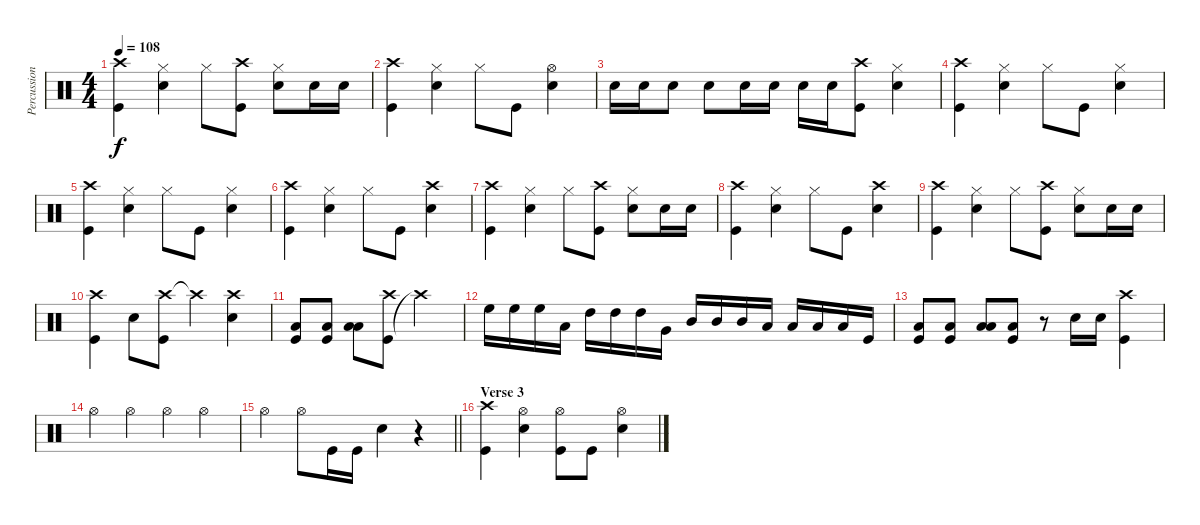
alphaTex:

\track ("Percussion" "Percussion") {instrument percussion}
\staff {score}
\articulation defaults
\ts (4 4)
\tempo 108
\clef neutral
\ks c
("Crash high (hit)" "Kick (hit)").4{dy f} ("Hi-Hat (closed)" "Snare (hit) 2").4 "Hi-Hat (closed)".8 ("Crash high (hit)" "Kick (hit)").8 ("Hi-Hat (closed)" "Snare (hit) 2").8 "Snare (hit) 2".16 "Snare (hit) 2".16 |
("Crash high (hit)" "Kick (hit)").4 ("Hi-Hat (closed)" "Snare (hit) 2").4 "Hi-Hat (closed)".8 "Kick (hit)".8 ("Hi-Hat (open)" "Snare (hit) 2").4 |
"Snare (hit) 2".16 "Snare (hit) 2".16 "Snare (hit) 2".8 "Snare (hit) 2".8 "Snare (hit) 2".16 "Snare (hit) 2".16 "Snare (hit) 2".16 "Snare (hit) 2".16 ("Crash high (hit)" "Kick (hit)").8 ("Snare (hit) 2" "Hi-Hat (closed)").4 |
("Crash high (hit)" "Kick (hit)").4 ("Hi-Hat (closed)" "Snare (hit) 2").4 "Hi-Hat (closed)".8 "Kick (hit)".8 ("Hi-Hat (closed)" "Snare (hit) 2").4 |
("Crash high (hit)" "Kick (hit)").4 ("Hi-Hat (closed)" "Snare (hit) 2").4 "Hi-Hat (closed)".8 "Kick (hit)".8 ("Hi-Hat (closed)" "Snare (hit) 2").4 |
("Crash high (hit)" "Kick (hit)").4 ("Hi-Hat (closed)" "Snare (hit) 2").4 "Hi-Hat (closed)".8 "Kick (hit)".8 ("Crash high (hit)" "Snare (hit) 2").4 |
("Crash high (hit)" "Kick (hit)").4 ("Hi-Hat (closed)" "Snare (hit) 2").4 "Hi-Hat (closed)".8 ("Crash high (hit)" "Kick (hit)").8 ("Hi-Hat (closed)" "Snare (hit) 2").8 "Snare (hit) 2".16 "Snare (hit) 2".16 |
("Crash high (hit)" "Kick (hit)").4 ("Hi-Hat (closed)" "Snare (hit) 2").4 "Hi-Hat (closed)".8 "Kick (hit)".8 ("Crash high (hit)" "Snare (hit) 2").4 |
("Crash high (hit)" "Kick (hit)").4 ("Hi-Hat (closed)" "Snare (hit) 2").4 "Hi-Hat (closed)".8 ("Crash high (hit)" "Kick (hit)").8 ("Hi-Hat (closed)" "Snare (hit) 2").8 "Snare (hit) 2".16 "Snare (hit) 2".16 |
("Crash high (hit)" "Kick (hit)").4 "Snare (hit) 2".8 ("Crash high (hit)" "Kick (hit)").8 "Crash high (hit)"{t}.4 ("Crash high (hit)" "Snare (hit) 2").4 |
("Low Tom (hit)" "Kick (hit)").8 ("Low Tom (hit)" "Kick (hit)").8 ("Low Tom (hit)" "Low Floor Tom (hit)").8 ("Kick (hit)" "Crash high (hit)").8 "Crash high (hit)"{t}.2 |
"High Floor Tom (hit)".16 "High Floor Tom (hit)".16 "High Floor Tom (hit)".16 "Low Tom (hit)".16 "High Tom (hit)".16 "High Tom (hit)".16 "High Tom (hit)".16 "Very Low Tom (hit)".16 "Mid Tom (hit)".16 "Mid Tom (hit)".16 "Mid Tom (hit)".16 "Low Floor Tom (hit)".16 "Low Tom (hit)".16 "Low Tom (hit)".16 "Low Tom (hit)".16 "Kick (hit)".16 |
("Low Tom (hit)" "Kick (hit)").8 ("Low Tom (hit)" "Kick (hit)").8 ("Low Tom (hit)" "Low Floor Tom (hit)").8 ("Low Tom (hit)" "Kick (hit)").8 r.8 "Snare (hit) 2".16 "Snare (hit) 2".16 ("Crash high (hit)" "Kick (hit)").4 |
"Hi-Hat (open)".4 "Hi-Hat (open)".4 "Hi-Hat (open)".4 "Hi-Hat (open)".4 |
\barLineRight lightlight "Hi-Hat (open)".4 "Hi-Hat (open)".8 "Kick (hit)".16 "Kick (hit)".16 "Snare (hit) 2".4
r.4 |
\section ("" "Verse 3")
("Crash high (hit)" "Kick (hit)").4 ("Snare (hit) 2" "Hi-Hat (open)").4 ("Hi-Hat (open)" "Kick (hit)").8 "Kick (hit)".8 ("Hi-Hat (open)" "Snare (hit) 2").4
